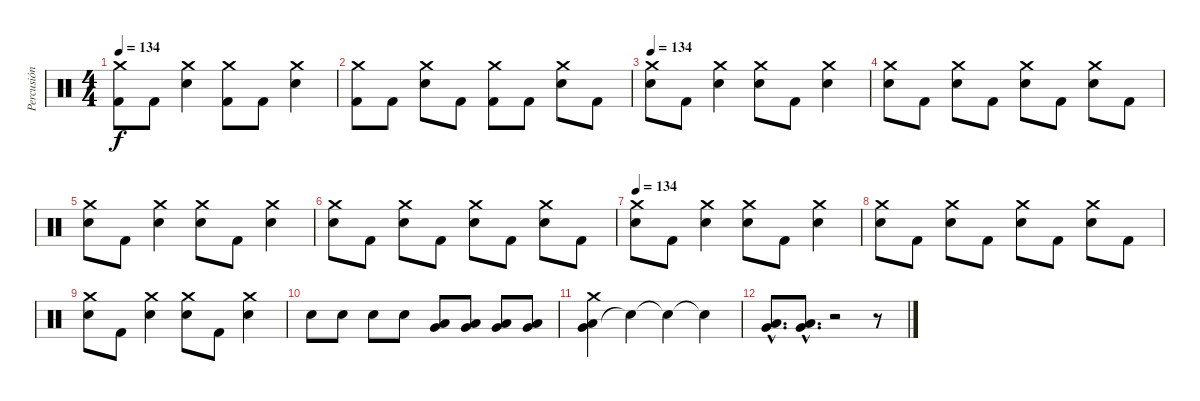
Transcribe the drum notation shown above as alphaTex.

\track ("Percusión" "Percusión") {instrument percussion}
\staff {score}
\articulation defaults
\ts (4 4)
\tempo 134
\clef neutral
\ks c
("Kick (hit) 2" "Crash medium (hit)").8{dy f} "Kick (hit) 2".8 ("Electric Snare (hit)" "Crash medium (hit)").4 ("Kick (hit) 2" "Crash medium (hit)").8 "Kick (hit) 2".8 ("Electric Snare (hit)" "Crash medium (hit)").4 |
("Kick (hit) 2" "Crash medium (hit)").8 "Kick (hit) 2".8 ("Electric Snare (hit)" "Crash medium (hit)").8 "Kick (hit) 2".8 ("Kick (hit) 2" "Crash medium (hit)").8 "Kick (hit) 2".8 ("Electric Snare (hit)" "Crash medium (hit)").8 "Kick (hit) 2".8 |
\tempo 134
("Electric Snare (hit)" "Crash medium (hit)").8 "Kick (hit) 2".8 ("Electric Snare (hit)" "Crash medium (hit)").4 ("Electric Snare (hit)" "Crash medium (hit)").8 "Kick (hit) 2".8 ("Electric Snare (hit)" "Crash medium (hit)").4 |
("Electric Snare (hit)" "Crash medium (hit)").8 "Kick (hit) 2".8 ("Electric Snare (hit)" "Crash medium (hit)").8 "Kick (hit) 2".8 ("Electric Snare (hit)" "Crash medium (hit)").8 "Kick (hit) 2".8 ("Electric Snare (hit)" "Crash medium (hit)").8 "Kick (hit) 2".8 |
("Electric Snare (hit)" "Crash medium (hit)").8 "Kick (hit) 2".8 ("Electric Snare (hit)" "Crash medium (hit)").4 ("Electric Snare (hit)" "Crash medium (hit)").8 "Kick (hit) 2".8 ("Electric Snare (hit)" "Crash medium (hit)").4 |
("Electric Snare (hit)" "Crash medium (hit)").8 "Kick (hit) 2".8 ("Electric Snare (hit)" "Crash medium (hit)").8 "Kick (hit) 2".8 ("Electric Snare (hit)" "Crash medium (hit)").8 "Kick (hit) 2".8 ("Electric Snare (hit)" "Crash medium (hit)").8 "Kick (hit) 2".8 |
\tempo 134
("Electric Snare (hit)" "Crash medium (hit)").8 "Kick (hit) 2".8 ("Electric Snare (hit)" "Crash medium (hit)").4 ("Electric Snare (hit)" "Crash medium (hit)").8 "Kick (hit) 2".8 ("Electric Snare (hit)" "Crash medium (hit)").4 |
("Electric Snare (hit)" "Crash medium (hit)").8 "Kick (hit) 2".8 ("Electric Snare (hit)" "Crash medium (hit)").8 "Kick (hit) 2".8 ("Electric Snare (hit)" "Crash medium (hit)").8 "Kick (hit) 2".8 ("Electric Snare (hit)" "Crash medium (hit)").8 "Kick (hit) 2".8 |
("Electric Snare (hit)" "Crash medium (hit)").8 "Kick (hit) 2".8 ("Electric Snare (hit)" "Crash medium (hit)").4 ("Electric Snare (hit)" "Crash medium (hit)").8 "Kick (hit) 2".8 ("Electric Snare (hit)" "Crash medium (hit)").4 |
"Electric Snare (hit)".8 "Electric Snare (hit)".8 "Electric Snare (hit)".8 "Electric Snare (hit)".8 ("Very Low Tom (hit)" "Low Floor Tom (hit)").8 ("Very Low Tom (hit)" "Low Floor Tom (hit)").8 ("Very Low Tom (hit)" "Low Floor Tom (hit)").8 ("Very Low Tom (hit)" "Low Floor Tom (hit)").8 |
("Very Low Tom (hit)" "Low Floor Tom (hit)" "Crash medium (hit)").4 "Snare (hit)"{t}.4 "Snare (hit)"{t}.4 "Snare (hit)"{t}.4 |
("Very Low Tom (hit)"{hac} "Low Floor Tom (hit)"{hac}).8{d} ("Very Low Tom (hit)"{hac} "Low Floor Tom (hit)"{hac}).8{d} r.2 r.8
